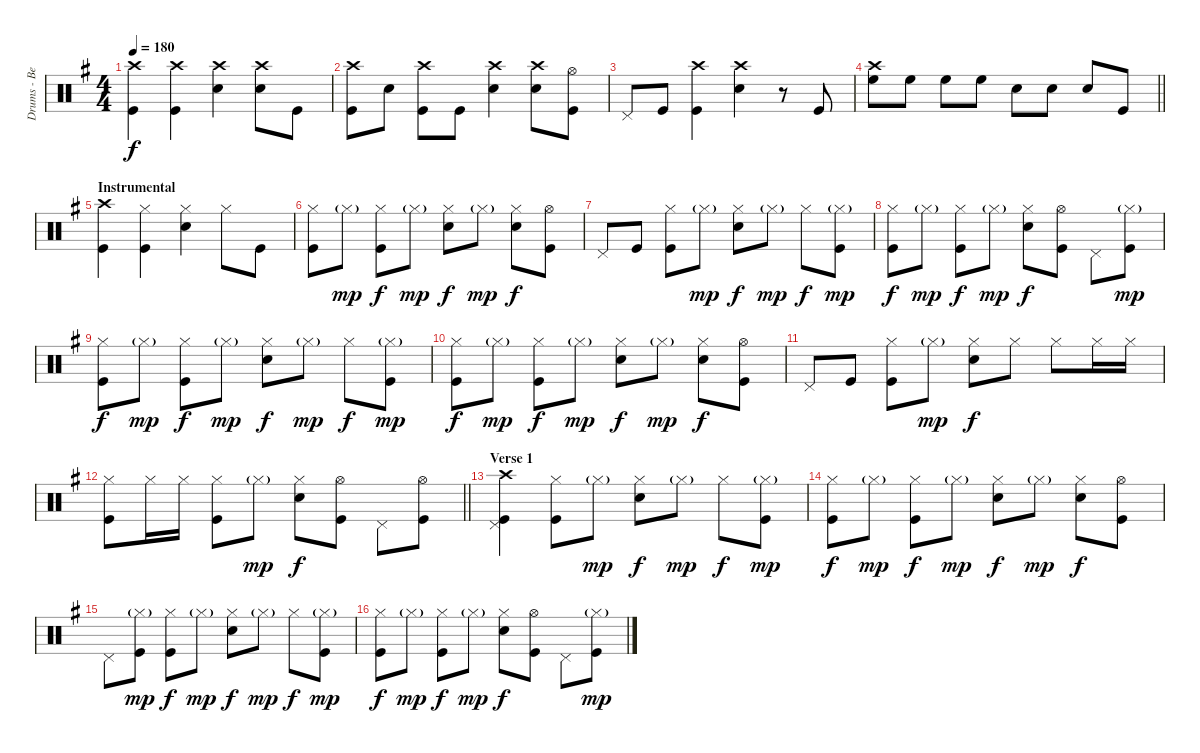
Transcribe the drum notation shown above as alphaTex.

\track ("Drums - Ben Johnston" "Drums - Be") {instrument percussion}
\staff {score}
\articulation defaults
\ts (4 4)
\tempo 180
\clef neutral
\ks eminor
("Crash high (hit)" "Kick (hit)").4{dy f} ("Crash high (hit)" "Kick (hit)").4 ("Crash high (hit)" "Snare (hit) 2").4 ("Crash high (hit)" "Snare (hit) 2").8 "Kick (hit)".8 |
("Crash high (hit)" "Kick (hit)").8 "Snare (hit) 2".8 ("Crash high (hit)" "Kick (hit)").8 "Kick (hit)".8 ("Crash high (hit)" "Snare (hit) 2").4 ("Crash high (hit)" "Snare (hit) 2").8 ("Hi-Hat (open)" "Kick (hit)").8 |
"Pedal Hi-Hat (hit)".8 "Kick (hit)".8 ("Crash high (hit)" "Kick (hit)").4 ("Crash high (hit)" "Snare (hit) 2").4 r.8 "Kick (hit)".8 |
\barLineRight lightlight
("Crash high (hit)" "High Floor Tom (hit)").8 "High Floor Tom (hit)".8 "High Floor Tom (hit)".8 "High Floor Tom (hit)".8 "Snare (hit) 2".8 "Snare (hit) 2".8 "Snare (hit) 2".8 "Kick (hit)".8 |
\section ("" "Instrumental")
("Crash high (hit)" "Kick (hit)").4 ("Hi-Hat (closed)" "Kick (hit)").4 ("Hi-Hat (closed)" "Snare (hit) 2").4 "Hi-Hat (closed)".8 "Kick (hit)".8 |
("Hi-Hat (closed)" "Kick (hit)").8 "Hi-Hat (closed)"{g}.8{dy mp} ("Hi-Hat (closed)" "Kick (hit)").8{dy f} "Hi-Hat (closed)"{g}.8{dy mp} ("Hi-Hat (closed)" "Snare (hit) 2").8{dy f} "Hi-Hat (closed)"{g}.8{dy mp} ("Hi-Hat (closed)" "Snare (hit) 2").8{dy f} ("Hi-Hat (open)" "Kick (hit)").8 |
"Pedal Hi-Hat (hit)".8 "Kick (hit)".8 ("Hi-Hat (closed)" "Kick (hit)").8 "Hi-Hat (closed)"{g}.8{dy mp} ("Hi-Hat (closed)" "Snare (hit) 2").8{dy f} "Hi-Hat (closed)"{g}.8{dy mp} "Hi-Hat (closed)".8{dy f} ("Hi-Hat (closed)"{g} "Kick (hit)").8{dy mp} |
("Hi-Hat (closed)" "Kick (hit)").8{dy f} "Hi-Hat (closed)"{g}.8{dy mp} ("Hi-Hat (closed)" "Kick (hit)").8{dy f} "Hi-Hat (closed)"{g}.8{dy mp} ("Hi-Hat (closed)" "Snare (hit) 2").8{dy f} ("Hi-Hat (open)" "Kick (hit)").8 "Pedal Hi-Hat (hit)".8 ("Hi-Hat (closed)"{g} "Kick (hit)").8{dy mp} |
("Hi-Hat (closed)" "Kick (hit)").8{dy f} "Hi-Hat (closed)"{g}.8{dy mp} ("Hi-Hat (closed)" "Kick (hit)").8{dy f} "Hi-Hat (closed)"{g}.8{dy mp} ("Hi-Hat (closed)" "Snare (hit) 2").8{dy f} "Hi-Hat (closed)"{g}.8{dy mp} "Hi-Hat (closed)".8{dy f} ("Hi-Hat (closed)"{g} "Kick (hit)").8{dy mp} |
("Hi-Hat (closed)" "Kick (hit)").8{dy f} "Hi-Hat (closed)"{g}.8{dy mp} ("Hi-Hat (closed)" "Kick (hit)").8{dy f} "Hi-Hat (closed)"{g}.8{dy mp} ("Hi-Hat (closed)" "Snare (hit) 2").8{dy f} "Hi-Hat (closed)"{g}.8{dy mp} ("Hi-Hat (closed)" "Snare (hit) 2").8{dy f} ("Hi-Hat (open)" "Kick (hit)").8 |
"Pedal Hi-Hat (hit)".8 "Kick (hit)".8 ("Hi-Hat (closed)" "Kick (hit)").8 "Hi-Hat (closed)"{g}.8{dy mp} ("Hi-Hat (closed)" "Snare (hit) 2").8{dy f} "Hi-Hat (closed)".8 "Hi-Hat (closed)".8 "Hi-Hat (closed)".16 "Hi-Hat (closed)".16 |
\barLineRight lightlight
("Hi-Hat (closed)" "Kick (hit)").8 "Hi-Hat (closed)".16 "Hi-Hat (closed)".16 ("Hi-Hat (closed)" "Kick (hit)").8 "Hi-Hat (closed)"{g}.8{dy mp} ("Hi-Hat (closed)" "Snare (hit) 2").8{dy f} ("Hi-Hat (open)" "Kick (hit)").8 "Pedal Hi-Hat (hit)".8 ("Hi-Hat (open)" "Kick (hit)").8 |
\section ("" "Verse 1")
("Crash high (hit)" "Pedal Hi-Hat (hit)" "Kick (hit)").4 ("Hi-Hat (closed)" "Kick (hit)").8 "Hi-Hat (closed)"{g}.8{dy mp} ("Hi-Hat (closed)" "Snare (hit) 2").8{dy f} "Hi-Hat (closed)"{g}.8{dy mp} "Hi-Hat (closed)".8{dy f} ("Hi-Hat (closed)"{g} "Kick (hit)").8{dy mp} |
("Hi-Hat (closed)" "Kick (hit)").8{dy f} "Hi-Hat (closed)"{g}.8{dy mp} ("Hi-Hat (closed)" "Kick (hit)").8{dy f} "Hi-Hat (closed)"{g}.8{dy mp} ("Hi-Hat (closed)" "Snare (hit) 2").8{dy f} "Hi-Hat (closed)"{g}.8{dy mp} ("Hi-Hat (closed)" "Snare (hit) 2").8{dy f} ("Hi-Hat (open)" "Kick (hit)").8 |
"Pedal Hi-Hat (hit)".8 ("Hi-Hat (closed)"{g} "Kick (hit)").8{dy mp} ("Hi-Hat (closed)" "Kick (hit)").8{dy f} "Hi-Hat (closed)"{g}.8{dy mp} ("Hi-Hat (closed)" "Snare (hit) 2").8{dy f} "Hi-Hat (closed)"{g}.8{dy mp} "Hi-Hat (closed)".8{dy f} ("Hi-Hat (closed)"{g} "Kick (hit)").8{dy mp} |
("Hi-Hat (closed)" "Kick (hit)").8{dy f} "Hi-Hat (closed)"{g}.8{dy mp} ("Hi-Hat (closed)" "Kick (hit)").8{dy f} "Hi-Hat (closed)"{g}.8{dy mp} ("Hi-Hat (closed)" "Snare (hit) 2").8{dy f} ("Hi-Hat (open)" "Kick (hit)").8 "Pedal Hi-Hat (hit)".8 ("Hi-Hat (closed)"{g} "Kick (hit)").8{dy mp}
